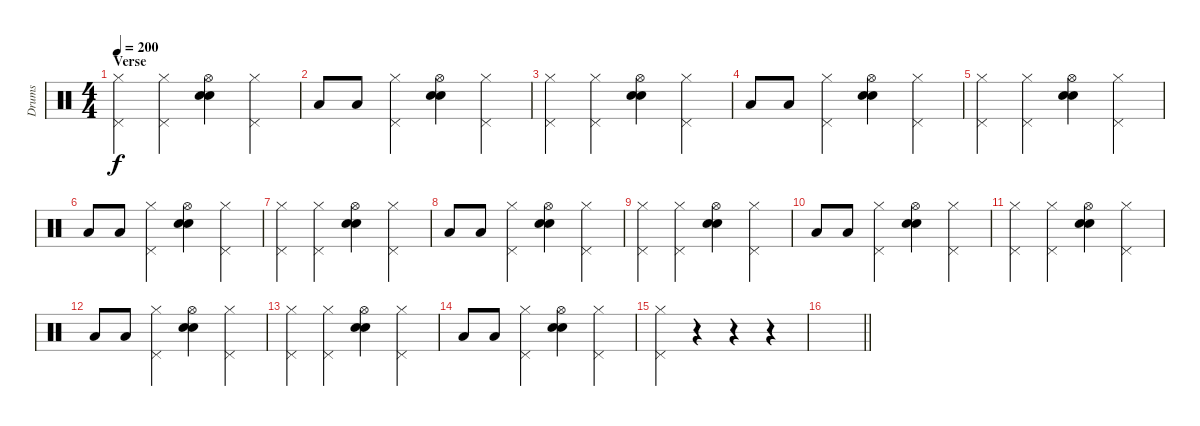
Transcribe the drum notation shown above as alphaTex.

\track ("Drums" "Drums") {instrument percussion}
\staff {score}
\articulation defaults
\ts (4 4)
\section ("" "Verse")
\tempo 200
\clef neutral
\ks c
("Hi-Hat (closed)" "Pedal Hi-Hat (hit)").4{dy f} ("Hi-Hat (closed)" "Pedal Hi-Hat (hit)").4 ("Snare (hit) 2" "Electric Snare (hit)" "Hi-Hat (open)").4 ("Hi-Hat (closed)" "Pedal Hi-Hat (hit)").4 |
"Low Tom (hit)".8 "Low Tom (hit)".8 ("Hi-Hat (closed)" "Pedal Hi-Hat (hit)").4 ("Snare (hit) 2" "Electric Snare (hit)" "Hi-Hat (open)").4 ("Hi-Hat (closed)" "Pedal Hi-Hat (hit)").4 |
("Hi-Hat (closed)" "Pedal Hi-Hat (hit)").4 ("Hi-Hat (closed)" "Pedal Hi-Hat (hit)").4 ("Snare (hit) 2" "Electric Snare (hit)" "Hi-Hat (open)").4 ("Hi-Hat (closed)" "Pedal Hi-Hat (hit)").4 |
"Low Tom (hit)".8 "Low Tom (hit)".8 ("Hi-Hat (closed)" "Pedal Hi-Hat (hit)").4 ("Snare (hit) 2" "Electric Snare (hit)" "Hi-Hat (open)").4 ("Hi-Hat (closed)" "Pedal Hi-Hat (hit)").4 |
("Hi-Hat (closed)" "Pedal Hi-Hat (hit)").4 ("Hi-Hat (closed)" "Pedal Hi-Hat (hit)").4 ("Snare (hit) 2" "Electric Snare (hit)" "Hi-Hat (open)").4 ("Hi-Hat (closed)" "Pedal Hi-Hat (hit)").4 |
"Low Tom (hit)".8 "Low Tom (hit)".8 ("Hi-Hat (closed)" "Pedal Hi-Hat (hit)").4 ("Snare (hit) 2" "Electric Snare (hit)" "Hi-Hat (open)").4 ("Hi-Hat (closed)" "Pedal Hi-Hat (hit)").4 |
("Hi-Hat (closed)" "Pedal Hi-Hat (hit)").4 ("Hi-Hat (closed)" "Pedal Hi-Hat (hit)").4 ("Snare (hit) 2" "Electric Snare (hit)" "Hi-Hat (open)").4 ("Hi-Hat (closed)" "Pedal Hi-Hat (hit)").4 |
"Low Tom (hit)".8 "Low Tom (hit)".8 ("Hi-Hat (closed)" "Pedal Hi-Hat (hit)").4 ("Snare (hit) 2" "Electric Snare (hit)" "Hi-Hat (open)").4 ("Hi-Hat (closed)" "Pedal Hi-Hat (hit)").4 |
("Hi-Hat (closed)" "Pedal Hi-Hat (hit)").4 ("Hi-Hat (closed)" "Pedal Hi-Hat (hit)").4 ("Snare (hit) 2" "Electric Snare (hit)" "Hi-Hat (open)").4 ("Hi-Hat (closed)" "Pedal Hi-Hat (hit)").4 |
"Low Tom (hit)".8 "Low Tom (hit)".8 ("Hi-Hat (closed)" "Pedal Hi-Hat (hit)").4 ("Snare (hit) 2" "Electric Snare (hit)" "Hi-Hat (open)").4 ("Hi-Hat (closed)" "Pedal Hi-Hat (hit)").4 |
("Hi-Hat (closed)" "Pedal Hi-Hat (hit)").4 ("Hi-Hat (closed)" "Pedal Hi-Hat (hit)").4 ("Snare (hit) 2" "Electric Snare (hit)" "Hi-Hat (open)").4 ("Hi-Hat (closed)" "Pedal Hi-Hat (hit)").4 |
"Low Tom (hit)".8 "Low Tom (hit)".8 ("Hi-Hat (closed)" "Pedal Hi-Hat (hit)").4 ("Snare (hit) 2" "Electric Snare (hit)" "Hi-Hat (open)").4 ("Hi-Hat (closed)" "Pedal Hi-Hat (hit)").4 |
("Hi-Hat (closed)" "Pedal Hi-Hat (hit)").4 ("Hi-Hat (closed)" "Pedal Hi-Hat (hit)").4 ("Snare (hit) 2" "Electric Snare (hit)" "Hi-Hat (open)").4 ("Hi-Hat (closed)" "Pedal Hi-Hat (hit)").4 |
"Low Tom (hit)".8 "Low Tom (hit)".8 ("Hi-Hat (closed)" "Pedal Hi-Hat (hit)").4 ("Snare (hit) 2" "Electric Snare (hit)" "Hi-Hat (open)").4 ("Hi-Hat (closed)" "Pedal Hi-Hat (hit)").4 |
("Hi-Hat (closed)" "Pedal Hi-Hat (hit)").4 r.4 r.4 r.4 |
\barLineRight lightlight
